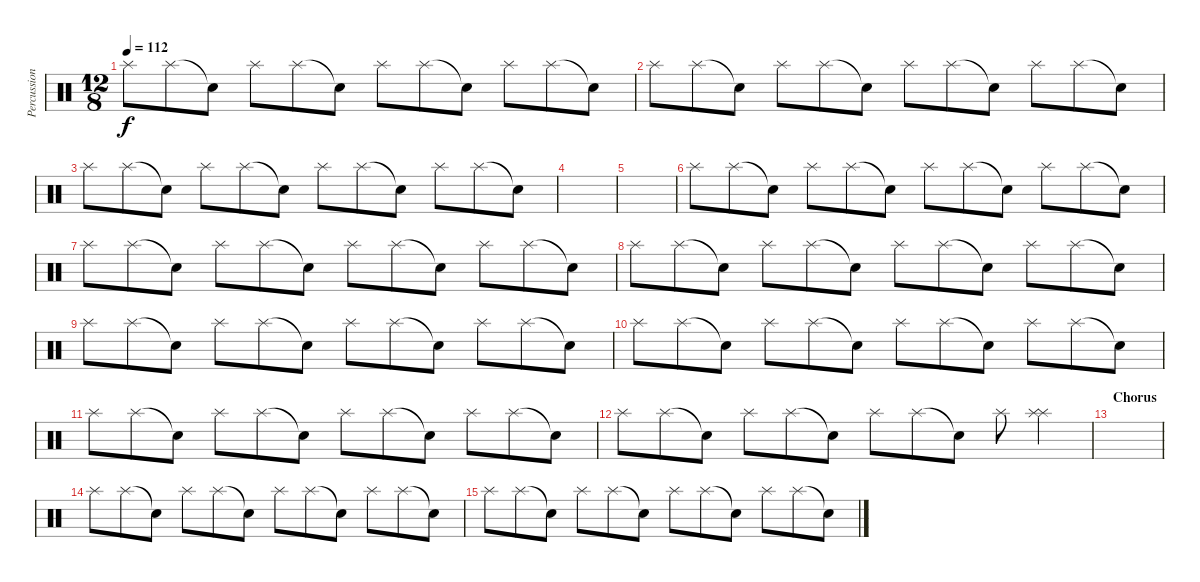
\track ("Percussions" "Percussion") {instrument percussion}
\staff {score}
\articulation defaults
\ts (12 8)
\tempo 112
\clef neutral
\ks c "Splash (hit)".8{dy f} "Splash (hit)".8 "Snare (hit)"{t}.8 "Splash (hit)".8 "Splash (hit)".8 "Snare (hit)"{t}.8 "Splash (hit)".8 "Splash (hit)".8 "Snare (hit)"{t}.8 "Splash (hit)".8 "Splash (hit)".8 "Snare (hit)"{t}.8
|
"Splash (hit)".8 "Splash (hit)".8 "Snare (hit)"{t}.8 "Splash (hit)".8 "Splash (hit)".8 "Snare (hit)"{t}.8 "Splash (hit)".8 "Splash (hit)".8 "Snare (hit)"{t}.8 "Splash (hit)".8 "Splash (hit)".8 "Snare (hit)"{t}.8 |
"Splash (hit)".8 "Splash (hit)".8 "Snare (hit)"{t}.8 "Splash (hit)".8 "Splash (hit)".8 "Snare (hit)"{t}.8 "Splash (hit)".8 "Splash (hit)".8 "Snare (hit)"{t}.8 "Splash (hit)".8 "Splash (hit)".8 "Snare (hit)"{t}.8 |
|
|
"Splash (hit)".8 "Splash (hit)".8 "Snare (hit)"{t}.8 "Splash (hit)".8 "Splash (hit)".8 "Snare (hit)"{t}.8 "Splash (hit)".8 "Splash (hit)".8 "Snare (hit)"{t}.8 "Splash (hit)".8 "Splash (hit)".8 "Snare (hit)"{t}.8 |
"Splash (hit)".8 "Splash (hit)".8 "Snare (hit)"{t}.8 "Splash (hit)".8 "Splash (hit)".8 "Snare (hit)"{t}.8 "Splash (hit)".8 "Splash (hit)".8 "Snare (hit)"{t}.8 "Splash (hit)".8 "Splash (hit)".8 "Snare (hit)"{t}.8 |
"Splash (hit)".8 "Splash (hit)".8 "Snare (hit)"{t}.8 "Splash (hit)".8 "Splash (hit)".8 "Snare (hit)"{t}.8 "Splash (hit)".8 "Splash (hit)".8 "Snare (hit)"{t}.8 "Splash (hit)".8 "Splash (hit)".8 "Snare (hit)"{t}.8 |
"Splash (hit)".8 "Splash (hit)".8 "Snare (hit)"{t}.8 "Splash (hit)".8 "Splash (hit)".8 "Snare (hit)"{t}.8 "Splash (hit)".8 "Splash (hit)".8 "Snare (hit)"{t}.8 "Splash (hit)".8 "Splash (hit)".8 "Snare (hit)"{t}.8 |
"Splash (hit)".8 "Splash (hit)".8 "Snare (hit)"{t}.8 "Splash (hit)".8 "Splash (hit)".8 "Snare (hit)"{t}.8 "Splash (hit)".8 "Splash (hit)".8 "Snare (hit)"{t}.8 "Splash (hit)".8 "Splash (hit)".8 "Snare (hit)"{t}.8 |
"Splash (hit)".8 "Splash (hit)".8 "Snare (hit)"{t}.8 "Splash (hit)".8 "Splash (hit)".8 "Snare (hit)"{t}.8 "Splash (hit)".8 "Splash (hit)".8 "Snare (hit)"{t}.8 "Splash (hit)".8 "Splash (hit)".8 "Snare (hit)"{t}.8 |
"Splash (hit)".8 "Splash (hit)".8 "Snare (hit)"{t}.8 "Splash (hit)".8 "Splash (hit)".8 "Snare (hit)"{t}.8 "Splash (hit)".8 "Splash (hit)".8 "Snare (hit)"{t}.8 "Splash (hit)".8 ("Splash (hit)" "Splash (hit)").4 |
\section ("" "Chorus")
|
"Splash (hit)".8 "Splash (hit)".8 "Snare (hit)"{t}.8 "Splash (hit)".8 "Splash (hit)".8 "Snare (hit)"{t}.8 "Splash (hit)".8 "Splash (hit)".8 "Snare (hit)"{t}.8 "Splash (hit)".8 "Splash (hit)".8 "Snare (hit)"{t}.8 |
"Splash (hit)".8 "Splash (hit)".8 "Snare (hit)"{t}.8 "Splash (hit)".8 "Splash (hit)".8 "Snare (hit)"{t}.8 "Splash (hit)".8 "Splash (hit)".8 "Snare (hit)"{t}.8 "Splash (hit)".8 "Splash (hit)".8 "Snare (hit)"{t}.8
